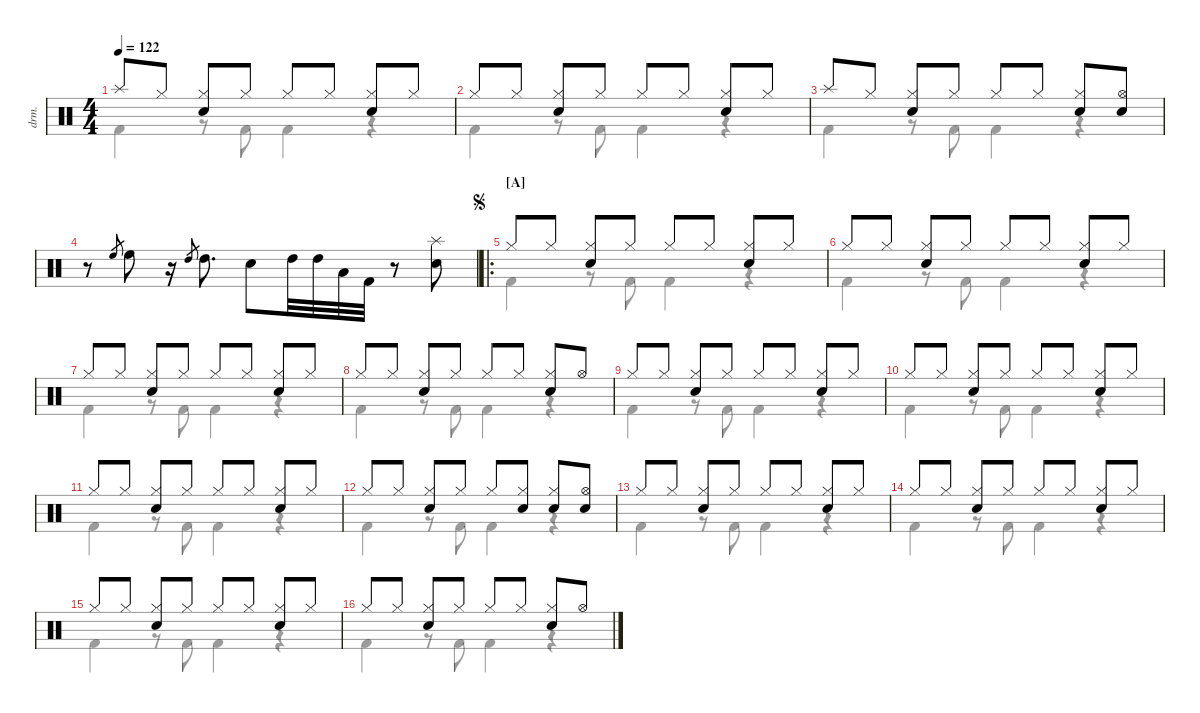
\defaultSystemsLayout 4
\hideDynamics
\bracketExtendMode nobrackets
\track ("Drumkit" "drm.") {defaultSystemsLayout 4 instrument percussion}
\staff {score}
\articulation defaults
\voice
\ts (4 4)
\tempo 122
\clef neutral
\ks c "Splash (hit)".8{dy mf beam Up} "Hi-Hat (closed)".8{beam Up}
("Hi-Hat (closed)" "Snare (hit) 2").8{beam Up} "Hi-Hat (closed)".8{beam Up} "Hi-Hat (closed)".8{beam Up} "Hi-Hat (closed)".8{beam Up} ("Hi-Hat (closed)" "Snare (hit) 2").8{beam Up} "Hi-Hat (closed)".8{beam Up} |
"Hi-Hat (closed)".8{beam Up} "Hi-Hat (closed)".8{beam Up} ("Hi-Hat (closed)" "Snare (hit) 2").8{beam Up} "Hi-Hat (closed)".8{beam Up} "Hi-Hat (closed)".8{beam Up} "Hi-Hat (closed)".8{beam Up} ("Hi-Hat (closed)" "Snare (hit) 2").8{beam Up} "Hi-Hat (closed)".8{beam Up} |
"Splash (hit)".8{beam Up} "Hi-Hat (closed)".8{beam Up} ("Hi-Hat (closed)" "Snare (hit) 2").8{beam Up} "Hi-Hat (closed)".8{beam Up} "Hi-Hat (closed)".8{beam Up} "Hi-Hat (closed)".8{beam Up} ("Hi-Hat (closed)" "Snare (hit) 2").8{beam Up} ("Hi-Hat (open)" "Snare (hit) 2").8{beam Up} |
r.8{beam Down} "High Floor Tom (hit)".8{gr beam Up} "High Floor Tom (hit)".8{beam Down} r.16{beam Down} "High Tom (hit)".8{gr beam Up} "High Tom (hit)".8{d beam Down} "Snare (hit) 2".8{beam Down} "High Tom (hit)".32{beam Down} "High Tom (hit)".32{beam Down} "Low Tom (hit)".32{beam Down} "Kick (hit) 2".32{beam Down} r.8{beam Down} ("Snare (hit) 2" "Splash (hit)").8{beam Down} |
\ro
\section ("A" "")
\jump segno "Hi-Hat (closed)".8{beam Up} "Hi-Hat (closed)".8{beam Up}
("Hi-Hat (closed)" "Snare (hit) 2").8{beam Up} "Hi-Hat (closed)".8{beam Up} "Hi-Hat (closed)".8{beam Up} "Hi-Hat (closed)".8{beam Up} ("Hi-Hat (closed)" "Snare (hit) 2").8{beam Up} "Hi-Hat (closed)".8{beam Up} |
"Hi-Hat (closed)".8{beam Up} "Hi-Hat (closed)".8{beam Up} ("Hi-Hat (closed)" "Snare (hit) 2").8{beam Up} "Hi-Hat (closed)".8{beam Up} "Hi-Hat (closed)".8{beam Up} "Hi-Hat (closed)".8{beam Up} ("Hi-Hat (closed)" "Snare (hit) 2").8{beam Up} "Hi-Hat (closed)".8{beam Up} |
"Hi-Hat (closed)".8{beam Up} "Hi-Hat (closed)".8{beam Up} ("Hi-Hat (closed)" "Snare (hit) 2").8{beam Up} "Hi-Hat (closed)".8{beam Up} "Hi-Hat (closed)".8{beam Up} "Hi-Hat (closed)".8{beam Up} ("Hi-Hat (closed)" "Snare (hit) 2").8{beam Up} "Hi-Hat (closed)".8{beam Up} |
"Hi-Hat (closed)".8{beam Up} "Hi-Hat (closed)".8{beam Up} ("Hi-Hat (closed)" "Snare (hit) 2").8{beam Up} "Hi-Hat (closed)".8{beam Up} "Hi-Hat (closed)".8{beam Up} "Hi-Hat (closed)".8{beam Up} ("Hi-Hat (closed)" "Snare (hit) 2").8{beam Up} "Hi-Hat (open)".8{beam Up} |
"Hi-Hat (closed)".8{beam Up} "Hi-Hat (closed)".8{beam Up} ("Hi-Hat (closed)" "Snare (hit) 2").8{beam Up} "Hi-Hat (closed)".8{beam Up} "Hi-Hat (closed)".8{beam Up} "Hi-Hat (closed)".8{beam Up} ("Hi-Hat (closed)" "Snare (hit) 2").8{beam Up} "Hi-Hat (closed)".8{beam Up} |
"Hi-Hat (closed)".8{beam Up} "Hi-Hat (closed)".8{beam Up} ("Hi-Hat (closed)" "Snare (hit) 2").8{beam Up} "Hi-Hat (closed)".8{beam Up} "Hi-Hat (closed)".8{beam Up} "Hi-Hat (closed)".8{beam Up} ("Hi-Hat (closed)" "Snare (hit) 2").8{beam Up} "Hi-Hat (closed)".8{beam Up} |
"Hi-Hat (closed)".8{beam Up} "Hi-Hat (closed)".8{beam Up} ("Hi-Hat (closed)" "Snare (hit) 2").8{beam Up} "Hi-Hat (closed)".8{beam Up} "Hi-Hat (closed)".8{beam Up} "Hi-Hat (closed)".8{beam Up} ("Hi-Hat (closed)" "Snare (hit) 2").8{beam Up} "Hi-Hat (closed)".8{beam Up} |
"Hi-Hat (closed)".8{beam Up} "Hi-Hat (closed)".8{beam Up} ("Hi-Hat (closed)" "Snare (hit) 2").8{beam Up} "Hi-Hat (closed)".8{beam Up} "Hi-Hat (closed)".8{beam Up} ("Hi-Hat (closed)" "Snare (hit) 2").8{beam Up} ("Hi-Hat (closed)" "Snare (hit) 2").8{beam Up} ("Hi-Hat (open)" "Snare (hit) 2").8{beam Up} |
"Hi-Hat (closed)".8{beam Up} "Hi-Hat (closed)".8{beam Up} ("Hi-Hat (closed)" "Snare (hit) 2").8{beam Up} "Hi-Hat (closed)".8{beam Up} "Hi-Hat (closed)".8{beam Up} "Hi-Hat (closed)".8{beam Up} ("Hi-Hat (closed)" "Snare (hit) 2").8{beam Up} "Hi-Hat (closed)".8{beam Up} |
"Hi-Hat (closed)".8{beam Up} "Hi-Hat (closed)".8{beam Up} ("Hi-Hat (closed)" "Snare (hit) 2").8{beam Up} "Hi-Hat (closed)".8{beam Up} "Hi-Hat (closed)".8{beam Up} "Hi-Hat (closed)".8{beam Up} ("Hi-Hat (closed)" "Snare (hit) 2").8{beam Up} "Hi-Hat (closed)".8{beam Up} |
"Hi-Hat (closed)".8{beam Up} "Hi-Hat (closed)".8{beam Up} ("Hi-Hat (closed)" "Snare (hit) 2").8{beam Up} "Hi-Hat (closed)".8{beam Up} "Hi-Hat (closed)".8{beam Up} "Hi-Hat (closed)".8{beam Up} ("Hi-Hat (closed)" "Snare (hit) 2").8{beam Up} "Hi-Hat (closed)".8{beam Up} |
"Hi-Hat (closed)".8{beam Up} "Hi-Hat (closed)".8{beam Up} ("Hi-Hat (closed)" "Snare (hit) 2").8{beam Up} "Hi-Hat (closed)".8{beam Up} "Hi-Hat (closed)".8{beam Up} "Hi-Hat (closed)".8{beam Up} ("Hi-Hat (closed)" "Snare (hit) 2").8{beam Up} "Hi-Hat (open)".8{beam Up}
\voice
\clef neutral
\ottava regular
\simile none
\ks c
|
|
|
|
|
|
|
|
|
|
|
|
|
|
|
\voice
\clef neutral
\ottava regular
\simile none
\ks c "Kick (hit) 2".4{dy mf beam Down}
r.8{beam Down} "Kick (hit) 2".8{beam Down} "Kick (hit) 2".4{beam Down} r.4{beam Down} |
"Kick (hit) 2".4{beam Down} r.8{beam Down} "Kick (hit) 2".8{beam Down} "Kick (hit) 2".4{beam Down} r.4{beam Down} |
"Kick (hit) 2".4{beam Down} r.8{beam Down} "Kick (hit) 2".8{beam Down} "Kick (hit) 2".4{beam Down} r.4{beam Down} |
|
"Kick (hit) 2".4{beam Down} r.8{beam Down} "Kick (hit) 2".8{beam Down} "Kick (hit) 2".4{beam Down} r.4{beam Down} |
"Kick (hit) 2".4{beam Down} r.8{beam Down} "Kick (hit) 2".8{beam Down} "Kick (hit) 2".4{beam Down} r.4{beam Down} |
"Kick (hit) 2".4{beam Down} r.8{beam Down} "Kick (hit) 2".8{beam Down} "Kick (hit) 2".4{beam Down} r.4{beam Down} |
"Kick (hit) 2".4{beam Down} r.8{beam Down} "Kick (hit) 2".8{beam Down} "Kick (hit) 2".4{beam Down} r.4{beam Down} |
"Kick (hit) 2".4{beam Down} r.8{beam Down} "Kick (hit) 2".8{beam Down} "Kick (hit) 2".4{beam Down} r.4{beam Down} |
"Kick (hit) 2".4{beam Down} r.8{beam Down} "Kick (hit) 2".8{beam Down} "Kick (hit) 2".4{beam Down} r.4{beam Down} |
"Kick (hit) 2".4{beam Down} r.8{beam Down} "Kick (hit) 2".8{beam Down} "Kick (hit) 2".4{beam Down} r.4{beam Down} |
"Kick (hit) 2".4{beam Down} r.8{beam Down} "Kick (hit) 2".8{beam Down} "Kick (hit) 2".4{beam Down} r.4{beam Down} |
"Kick (hit) 2".4{beam Down} r.8{beam Down} "Kick (hit) 2".8{beam Down} "Kick (hit) 2".4{beam Down} r.4{beam Down} |
"Kick (hit) 2".4{beam Down} r.8{beam Down} "Kick (hit) 2".8{beam Down} "Kick (hit) 2".4{beam Down} r.4{beam Down} |
"Kick (hit) 2".4{beam Down} r.8{beam Down} "Kick (hit) 2".8{beam Down} "Kick (hit) 2".4{beam Down} r.4{beam Down} |
"Kick (hit) 2".4{beam Down} r.8{beam Down} "Kick (hit) 2".8{beam Down} "Kick (hit) 2".4{beam Down} r.4{beam Down}
